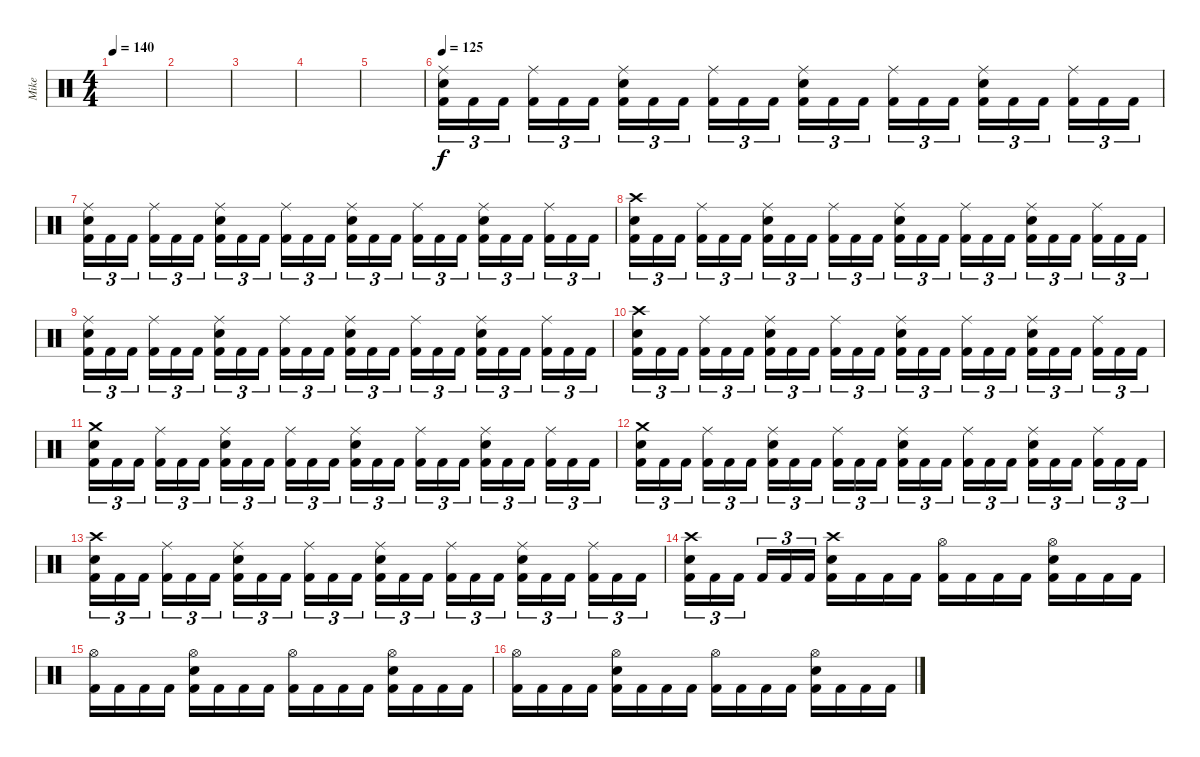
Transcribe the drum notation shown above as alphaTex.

\track ("Mike" "Mike") {instrument percussion}
\staff {score}
\articulation defaults
\ts (4 4)
\tempo 140
\clef neutral
\ks c
|
|
|
|
|
\tempo 125
("Kick (hit) 2" "Electric Snare (hit)" "Ride (middle)").16{tu (3 2)} "Kick (hit) 2".16{tu (3 2)} "Kick (hit) 2".16{tu (3 2) beam splitsecondary} ("Kick (hit) 2" "Ride (middle)").16{tu (3 2)} "Kick (hit) 2".16{tu (3 2)} "Kick (hit) 2".16{tu (3 2)} ("Kick (hit) 2" "Electric Snare (hit)" "Ride (middle)").16{tu (3 2)} "Kick (hit) 2".16{tu (3 2)} "Kick (hit) 2".16{tu (3 2) beam splitsecondary} ("Kick (hit) 2" "Ride (middle)").16{tu (3 2)} "Kick (hit) 2".16{tu (3 2)} "Kick (hit) 2".16{tu (3 2)} ("Kick (hit) 2" "Electric Snare (hit)" "Ride (middle)").16{tu (3 2)} "Kick (hit) 2".16{tu (3 2)} "Kick (hit) 2".16{tu (3 2) beam splitsecondary} ("Kick (hit) 2" "Ride (middle)").16{tu (3 2)} "Kick (hit) 2".16{tu (3 2)} "Kick (hit) 2".16{tu (3 2)} ("Kick (hit) 2" "Electric Snare (hit)" "Ride (middle)").16{tu (3 2)} "Kick (hit) 2".16{tu (3 2)} "Kick (hit) 2".16{tu (3 2) beam splitsecondary} ("Kick (hit) 2" "Ride (middle)").16{tu (3 2)} "Kick (hit) 2".16{tu (3 2)} "Kick (hit) 2".16{tu (3 2)} |
("Kick (hit) 2" "Electric Snare (hit)" "Ride (middle)").16{tu (3 2)} "Kick (hit) 2".16{tu (3 2)} "Kick (hit) 2".16{tu (3 2) beam splitsecondary} ("Kick (hit) 2" "Ride (middle)").16{tu (3 2)} "Kick (hit) 2".16{tu (3 2)} "Kick (hit) 2".16{tu (3 2)} ("Kick (hit) 2" "Electric Snare (hit)" "Ride (middle)").16{tu (3 2)} "Kick (hit) 2".16{tu (3 2)} "Kick (hit) 2".16{tu (3 2) beam splitsecondary} ("Kick (hit) 2" "Ride (middle)").16{tu (3 2)} "Kick (hit) 2".16{tu (3 2)} "Kick (hit) 2".16{tu (3 2)} ("Kick (hit) 2" "Electric Snare (hit)" "Ride (middle)").16{tu (3 2)} "Kick (hit) 2".16{tu (3 2)} "Kick (hit) 2".16{tu (3 2) beam splitsecondary} ("Kick (hit) 2" "Ride (middle)").16{tu (3 2)} "Kick (hit) 2".16{tu (3 2)} "Kick (hit) 2".16{tu (3 2)} ("Kick (hit) 2" "Electric Snare (hit)" "Ride (middle)").16{tu (3 2)} "Kick (hit) 2".16{tu (3 2)} "Kick (hit) 2".16{tu (3 2) beam splitsecondary} ("Kick (hit) 2" "Ride (middle)").16{tu (3 2)} "Kick (hit) 2".16{tu (3 2)} "Kick (hit) 2".16{tu (3 2)} |
("Kick (hit) 2" "Electric Snare (hit)" "Crash high (hit)").16{tu (3 2)} "Kick (hit) 2".16{tu (3 2)} "Kick (hit) 2".16{tu (3 2) beam splitsecondary} ("Kick (hit) 2" "Ride (middle)").16{tu (3 2)} "Kick (hit) 2".16{tu (3 2)} "Kick (hit) 2".16{tu (3 2)} ("Kick (hit) 2" "Electric Snare (hit)" "Ride (middle)").16{tu (3 2)} "Kick (hit) 2".16{tu (3 2)} "Kick (hit) 2".16{tu (3 2) beam splitsecondary} ("Kick (hit) 2" "Ride (middle)").16{tu (3 2)} "Kick (hit) 2".16{tu (3 2)} "Kick (hit) 2".16{tu (3 2)} ("Kick (hit) 2" "Electric Snare (hit)" "Ride (middle)").16{tu (3 2)} "Kick (hit) 2".16{tu (3 2)} "Kick (hit) 2".16{tu (3 2) beam splitsecondary} ("Kick (hit) 2" "Ride (middle)").16{tu (3 2)} "Kick (hit) 2".16{tu (3 2)} "Kick (hit) 2".16{tu (3 2)} ("Kick (hit) 2" "Electric Snare (hit)" "Ride (middle)").16{tu (3 2)} "Kick (hit) 2".16{tu (3 2)} "Kick (hit) 2".16{tu (3 2) beam splitsecondary} ("Kick (hit) 2" "Ride (middle)").16{tu (3 2)} "Kick (hit) 2".16{tu (3 2)} "Kick (hit) 2".16{tu (3 2)} |
("Kick (hit) 2" "Electric Snare (hit)" "Ride (middle)").16{tu (3 2)} "Kick (hit) 2".16{tu (3 2)} "Kick (hit) 2".16{tu (3 2) beam splitsecondary} ("Kick (hit) 2" "Ride (middle)").16{tu (3 2)} "Kick (hit) 2".16{tu (3 2)} "Kick (hit) 2".16{tu (3 2)} ("Kick (hit) 2" "Electric Snare (hit)" "Ride (middle)").16{tu (3 2)} "Kick (hit) 2".16{tu (3 2)} "Kick (hit) 2".16{tu (3 2) beam splitsecondary} ("Kick (hit) 2" "Ride (middle)").16{tu (3 2)} "Kick (hit) 2".16{tu (3 2)} "Kick (hit) 2".16{tu (3 2)} ("Kick (hit) 2" "Electric Snare (hit)" "Ride (middle)").16{tu (3 2)} "Kick (hit) 2".16{tu (3 2)} "Kick (hit) 2".16{tu (3 2) beam splitsecondary} ("Kick (hit) 2" "Ride (middle)").16{tu (3 2)} "Kick (hit) 2".16{tu (3 2)} "Kick (hit) 2".16{tu (3 2)} ("Kick (hit) 2" "Electric Snare (hit)" "Ride (middle)").16{tu (3 2)} "Kick (hit) 2".16{tu (3 2)} "Kick (hit) 2".16{tu (3 2) beam splitsecondary} ("Kick (hit) 2" "Ride (middle)").16{tu (3 2)} "Kick (hit) 2".16{tu (3 2)} "Kick (hit) 2".16{tu (3 2)} |
("Kick (hit) 2" "Electric Snare (hit)" "Crash high (hit)").16{tu (3 2)} "Kick (hit) 2".16{tu (3 2)} "Kick (hit) 2".16{tu (3 2) beam splitsecondary} ("Kick (hit) 2" "Ride (middle)").16{tu (3 2)} "Kick (hit) 2".16{tu (3 2)} "Kick (hit) 2".16{tu (3 2)} ("Kick (hit) 2" "Electric Snare (hit)" "Ride (middle)").16{tu (3 2)} "Kick (hit) 2".16{tu (3 2)} "Kick (hit) 2".16{tu (3 2) beam splitsecondary} ("Kick (hit) 2" "Ride (middle)").16{tu (3 2)} "Kick (hit) 2".16{tu (3 2)} "Kick (hit) 2".16{tu (3 2)} ("Kick (hit) 2" "Electric Snare (hit)" "Ride (middle)").16{tu (3 2)} "Kick (hit) 2".16{tu (3 2)} "Kick (hit) 2".16{tu (3 2) beam splitsecondary} ("Kick (hit) 2" "Ride (middle)").16{tu (3 2)} "Kick (hit) 2".16{tu (3 2)} "Kick (hit) 2".16{tu (3 2)} ("Kick (hit) 2" "Electric Snare (hit)" "Ride (middle)").16{tu (3 2)} "Kick (hit) 2".16{tu (3 2)} "Kick (hit) 2".16{tu (3 2) beam splitsecondary} ("Kick (hit) 2" "Ride (middle)").16{tu (3 2)} "Kick (hit) 2".16{tu (3 2)} "Kick (hit) 2".16{tu (3 2)} |
("Kick (hit) 2" "Electric Snare (hit)" "Crash medium (hit)").16{tu (3 2)} "Kick (hit) 2".16{tu (3 2)} "Kick (hit) 2".16{tu (3 2) beam splitsecondary} ("Kick (hit) 2" "Ride (middle)").16{tu (3 2)} "Kick (hit) 2".16{tu (3 2)} "Kick (hit) 2".16{tu (3 2)} ("Kick (hit) 2" "Electric Snare (hit)" "Ride (middle)").16{tu (3 2)} "Kick (hit) 2".16{tu (3 2)} "Kick (hit) 2".16{tu (3 2) beam splitsecondary} ("Kick (hit) 2" "Ride (middle)").16{tu (3 2)} "Kick (hit) 2".16{tu (3 2)} "Kick (hit) 2".16{tu (3 2)} ("Kick (hit) 2" "Electric Snare (hit)" "Ride (middle)").16{tu (3 2)} "Kick (hit) 2".16{tu (3 2)} "Kick (hit) 2".16{tu (3 2) beam splitsecondary} ("Kick (hit) 2" "Ride (middle)").16{tu (3 2)} "Kick (hit) 2".16{tu (3 2)} "Kick (hit) 2".16{tu (3 2)} ("Kick (hit) 2" "Electric Snare (hit)" "Ride (middle)").16{tu (3 2)} "Kick (hit) 2".16{tu (3 2)} "Kick (hit) 2".16{tu (3 2) beam splitsecondary} ("Kick (hit) 2" "Ride (middle)").16{tu (3 2)} "Kick (hit) 2".16{tu (3 2)} "Kick (hit) 2".16{tu (3 2)} |
("Kick (hit) 2" "Electric Snare (hit)" "Crash medium (hit)").16{tu (3 2)} "Kick (hit) 2".16{tu (3 2)} "Kick (hit) 2".16{tu (3 2) beam splitsecondary} ("Kick (hit) 2" "Ride (middle)").16{tu (3 2)} "Kick (hit) 2".16{tu (3 2)} "Kick (hit) 2".16{tu (3 2)} ("Kick (hit) 2" "Electric Snare (hit)" "Ride (middle)").16{tu (3 2)} "Kick (hit) 2".16{tu (3 2)} "Kick (hit) 2".16{tu (3 2) beam splitsecondary} ("Kick (hit) 2" "Ride (middle)").16{tu (3 2)} "Kick (hit) 2".16{tu (3 2)} "Kick (hit) 2".16{tu (3 2)} ("Kick (hit) 2" "Electric Snare (hit)" "Ride (middle)").16{tu (3 2)} "Kick (hit) 2".16{tu (3 2)} "Kick (hit) 2".16{tu (3 2) beam splitsecondary} ("Kick (hit) 2" "Ride (middle)").16{tu (3 2)} "Kick (hit) 2".16{tu (3 2)} "Kick (hit) 2".16{tu (3 2)} ("Kick (hit) 2" "Electric Snare (hit)" "Ride (middle)").16{tu (3 2)} "Kick (hit) 2".16{tu (3 2)} "Kick (hit) 2".16{tu (3 2) beam splitsecondary} ("Kick (hit) 2" "Ride (middle)").16{tu (3 2)} "Kick (hit) 2".16{tu (3 2)} "Kick (hit) 2".16{tu (3 2)} |
("Kick (hit) 2" "Electric Snare (hit)" "Crash high (hit)").16{tu (3 2)} "Kick (hit) 2".16{tu (3 2)} "Kick (hit) 2".16{tu (3 2) beam splitsecondary} ("Kick (hit) 2" "Ride (middle)").16{tu (3 2)} "Kick (hit) 2".16{tu (3 2)} "Kick (hit) 2".16{tu (3 2)} ("Kick (hit) 2" "Electric Snare (hit)" "Ride (middle)").16{tu (3 2)} "Kick (hit) 2".16{tu (3 2)} "Kick (hit) 2".16{tu (3 2) beam splitsecondary} ("Kick (hit) 2" "Ride (middle)").16{tu (3 2)} "Kick (hit) 2".16{tu (3 2)} "Kick (hit) 2".16{tu (3 2)} ("Kick (hit) 2" "Electric Snare (hit)" "Ride (middle)").16{tu (3 2)} "Kick (hit) 2".16{tu (3 2)} "Kick (hit) 2".16{tu (3 2) beam splitsecondary} ("Kick (hit) 2" "Ride (middle)").16{tu (3 2)} "Kick (hit) 2".16{tu (3 2)} "Kick (hit) 2".16{tu (3 2)} ("Kick (hit) 2" "Electric Snare (hit)" "Ride (middle)").16{tu (3 2)} "Kick (hit) 2".16{tu (3 2)} "Kick (hit) 2".16{tu (3 2) beam splitsecondary} ("Kick (hit) 2" "Ride (middle)").16{tu (3 2)} "Kick (hit) 2".16{tu (3 2)} "Kick (hit) 2".16{tu (3 2)} |
("Kick (hit) 2" "Electric Snare (hit)" "Crash high (hit)").16{tu (3 2)} "Kick (hit) 2".16{tu (3 2)} "Kick (hit) 2".16{tu (3 2) beam splitsecondary} "Kick (hit) 2".16{tu (3 2)} "Kick (hit) 2".16{tu (3 2)} "Kick (hit) 2".16{tu (3 2)} ("Kick (hit) 2" "Electric Snare (hit)" "Crash high (hit)").16 "Kick (hit) 2".16 "Kick (hit) 2".16 "Kick (hit) 2".16 ("Kick (hit) 2" "Hi-Hat (open)").16 "Kick (hit) 2".16 "Kick (hit) 2".16 "Kick (hit) 2".16 ("Kick (hit) 2" "Electric Snare (hit)" "Hi-Hat (open)").16 "Kick (hit) 2".16 "Kick (hit) 2".16 "Kick (hit) 2".16 |
("Kick (hit) 2" "Hi-Hat (open)").16 "Kick (hit) 2".16 "Kick (hit) 2".16 "Kick (hit) 2".16 ("Kick (hit) 2" "Electric Snare (hit)" "Hi-Hat (open)").16 "Kick (hit) 2".16 "Kick (hit) 2".16 "Kick (hit) 2".16 ("Kick (hit) 2" "Hi-Hat (open)").16 "Kick (hit) 2".16 "Kick (hit) 2".16 "Kick (hit) 2".16 ("Kick (hit) 2" "Electric Snare (hit)" "Hi-Hat (open)").16 "Kick (hit) 2".16 "Kick (hit) 2".16 "Kick (hit) 2".16 |
("Kick (hit) 2" "Hi-Hat (open)").16 "Kick (hit) 2".16 "Kick (hit) 2".16 "Kick (hit) 2".16 ("Kick (hit) 2" "Electric Snare (hit)" "Hi-Hat (open)").16 "Kick (hit) 2".16 "Kick (hit) 2".16 "Kick (hit) 2".16 ("Kick (hit) 2" "Hi-Hat (open)").16 "Kick (hit) 2".16 "Kick (hit) 2".16 "Kick (hit) 2".16 ("Kick (hit) 2" "Electric Snare (hit)" "Hi-Hat (open)").16 "Kick (hit) 2".16 "Kick (hit) 2".16 "Kick (hit) 2".16
